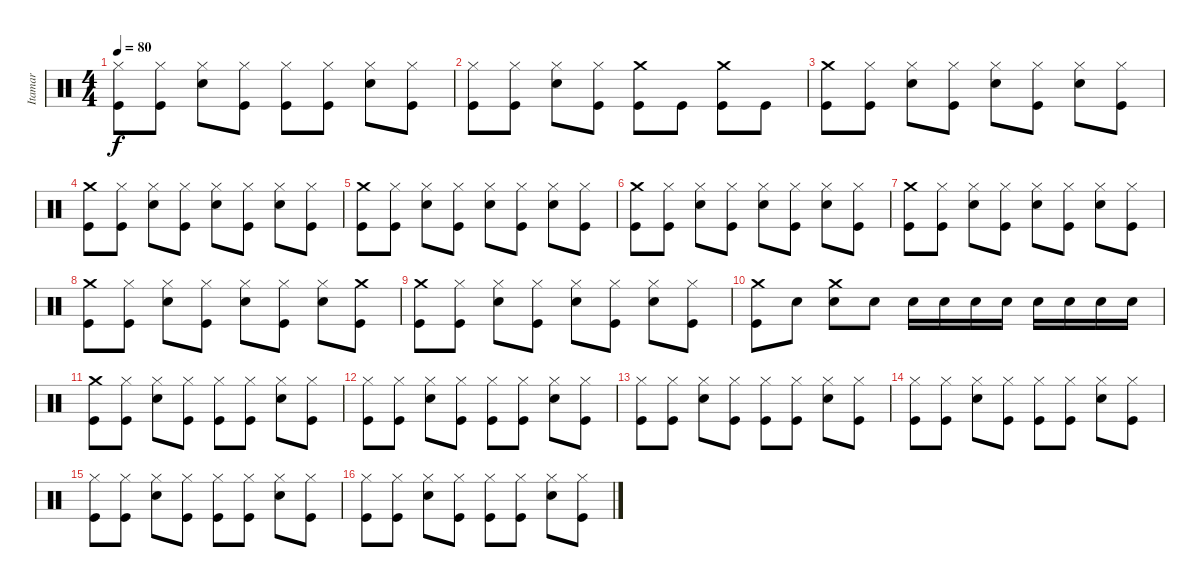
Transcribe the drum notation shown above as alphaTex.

\track ("Itamar" "Itamar") {instrument percussion}
\staff {score}
\articulation defaults
\ts (4 4)
\tempo 80
\clef neutral
\ks c
("Hi-Hat (closed)" "Kick (hit)").8{dy f} ("Hi-Hat (closed)" "Kick (hit)").8 ("Hi-Hat (closed)" "Electric Snare (hit)").8 ("Hi-Hat (closed)" "Kick (hit)").8 ("Hi-Hat (closed)" "Kick (hit)").8 ("Hi-Hat (closed)" "Kick (hit)").8 ("Hi-Hat (closed)" "Electric Snare (hit)").8 ("Hi-Hat (closed)" "Kick (hit)").8 |
("Hi-Hat (closed)" "Kick (hit)").8 ("Hi-Hat (closed)" "Kick (hit)").8 ("Hi-Hat (closed)" "Electric Snare (hit)").8 ("Hi-Hat (closed)" "Kick (hit)").8 ("Crash medium (hit)" "Kick (hit)").8 "Kick (hit)".8 ("Crash medium (hit)" "Kick (hit)").8 "Kick (hit)".8 |
("Crash medium (hit)" "Kick (hit)").8 ("Hi-Hat (closed)" "Kick (hit)").8 ("Hi-Hat (closed)" "Electric Snare (hit)").8 ("Hi-Hat (closed)" "Kick (hit)").8 ("Hi-Hat (closed)" "Electric Snare (hit)").8 ("Hi-Hat (closed)" "Kick (hit)").8 ("Hi-Hat (closed)" "Electric Snare (hit)").8 ("Hi-Hat (closed)" "Kick (hit)").8 |
("Crash medium (hit)" "Kick (hit)").8 ("Hi-Hat (closed)" "Kick (hit)").8 ("Hi-Hat (closed)" "Electric Snare (hit)").8 ("Hi-Hat (closed)" "Kick (hit)").8 ("Hi-Hat (closed)" "Electric Snare (hit)").8 ("Hi-Hat (closed)" "Kick (hit)").8 ("Hi-Hat (closed)" "Electric Snare (hit)").8 ("Hi-Hat (closed)" "Kick (hit)").8 |
("Crash medium (hit)" "Kick (hit)").8 ("Hi-Hat (closed)" "Kick (hit)").8 ("Hi-Hat (closed)" "Electric Snare (hit)").8 ("Hi-Hat (closed)" "Kick (hit)").8 ("Hi-Hat (closed)" "Electric Snare (hit)").8 ("Hi-Hat (closed)" "Kick (hit)").8 ("Hi-Hat (closed)" "Electric Snare (hit)").8 ("Hi-Hat (closed)" "Kick (hit)").8 |
("Crash medium (hit)" "Kick (hit)").8 ("Hi-Hat (closed)" "Kick (hit)").8 ("Hi-Hat (closed)" "Electric Snare (hit)").8 ("Hi-Hat (closed)" "Kick (hit)").8 ("Hi-Hat (closed)" "Electric Snare (hit)").8 ("Hi-Hat (closed)" "Kick (hit)").8 ("Hi-Hat (closed)" "Electric Snare (hit)").8 ("Hi-Hat (closed)" "Kick (hit)").8 |
("Crash medium (hit)" "Kick (hit)").8 ("Hi-Hat (closed)" "Kick (hit)").8 ("Hi-Hat (closed)" "Electric Snare (hit)").8 ("Hi-Hat (closed)" "Kick (hit)").8 ("Hi-Hat (closed)" "Electric Snare (hit)").8 ("Hi-Hat (closed)" "Kick (hit)").8 ("Hi-Hat (closed)" "Electric Snare (hit)").8 ("Hi-Hat (closed)" "Kick (hit)").8 |
("Crash medium (hit)" "Kick (hit)").8 ("Hi-Hat (closed)" "Kick (hit)").8 ("Hi-Hat (closed)" "Electric Snare (hit)").8 ("Hi-Hat (closed)" "Kick (hit)").8 ("Hi-Hat (closed)" "Electric Snare (hit)").8 ("Hi-Hat (closed)" "Kick (hit)").8 ("Hi-Hat (closed)" "Electric Snare (hit)").8 ("Crash medium (hit)" "Kick (hit)").8 |
("Crash medium (hit)" "Kick (hit)").8 ("Hi-Hat (closed)" "Kick (hit)").8 ("Hi-Hat (closed)" "Electric Snare (hit)").8 ("Hi-Hat (closed)" "Kick (hit)").8 ("Hi-Hat (closed)" "Electric Snare (hit)").8 ("Hi-Hat (closed)" "Kick (hit)").8 ("Hi-Hat (closed)" "Electric Snare (hit)").8 ("Hi-Hat (closed)" "Kick (hit)").8 |
("Crash medium (hit)" "Kick (hit)").8 "Snare (hit) 2".8 ("Crash medium (hit)" "Snare (hit) 2").8 "Snare (hit) 2".8 "Snare (hit) 2".16 "Snare (hit) 2".16 "Snare (hit) 2".16 "Snare (hit) 2".16 "Snare (hit) 2".16 "Snare (hit) 2".16 "Snare (hit) 2".16 "Snare (hit) 2".16 |
("Crash medium (hit)" "Kick (hit)").8 ("Hi-Hat (closed)" "Kick (hit)").8 ("Hi-Hat (closed)" "Electric Snare (hit)").8 ("Hi-Hat (closed)" "Kick (hit)").8 ("Hi-Hat (closed)" "Kick (hit)").8 ("Hi-Hat (closed)" "Kick (hit)").8 ("Hi-Hat (closed)" "Electric Snare (hit)").8 ("Hi-Hat (closed)" "Kick (hit)").8 |
("Hi-Hat (closed)" "Kick (hit)").8 ("Hi-Hat (closed)" "Kick (hit)").8 ("Hi-Hat (closed)" "Electric Snare (hit)").8 ("Hi-Hat (closed)" "Kick (hit)").8 ("Hi-Hat (closed)" "Kick (hit)").8 ("Hi-Hat (closed)" "Kick (hit)").8 ("Hi-Hat (closed)" "Electric Snare (hit)").8 ("Hi-Hat (closed)" "Kick (hit)").8 |
("Hi-Hat (closed)" "Kick (hit)").8 ("Hi-Hat (closed)" "Kick (hit)").8 ("Hi-Hat (closed)" "Electric Snare (hit)").8 ("Hi-Hat (closed)" "Kick (hit)").8 ("Hi-Hat (closed)" "Kick (hit)").8 ("Hi-Hat (closed)" "Kick (hit)").8 ("Hi-Hat (closed)" "Electric Snare (hit)").8 ("Hi-Hat (closed)" "Kick (hit)").8 |
("Hi-Hat (closed)" "Kick (hit)").8 ("Hi-Hat (closed)" "Kick (hit)").8 ("Hi-Hat (closed)" "Electric Snare (hit)").8 ("Hi-Hat (closed)" "Kick (hit)").8 ("Hi-Hat (closed)" "Kick (hit)").8 ("Hi-Hat (closed)" "Kick (hit)").8 ("Hi-Hat (closed)" "Electric Snare (hit)").8 ("Hi-Hat (closed)" "Kick (hit)").8 |
("Hi-Hat (closed)" "Kick (hit)").8 ("Hi-Hat (closed)" "Kick (hit)").8 ("Hi-Hat (closed)" "Electric Snare (hit)").8 ("Hi-Hat (closed)" "Kick (hit)").8 ("Hi-Hat (closed)" "Kick (hit)").8 ("Hi-Hat (closed)" "Kick (hit)").8 ("Hi-Hat (closed)" "Electric Snare (hit)").8 ("Hi-Hat (closed)" "Kick (hit)").8 |
("Hi-Hat (closed)" "Kick (hit)").8 ("Hi-Hat (closed)" "Kick (hit)").8 ("Hi-Hat (closed)" "Electric Snare (hit)").8 ("Hi-Hat (closed)" "Kick (hit)").8 ("Hi-Hat (closed)" "Kick (hit)").8 ("Hi-Hat (closed)" "Kick (hit)").8 ("Hi-Hat (closed)" "Electric Snare (hit)").8 ("Hi-Hat (closed)" "Kick (hit)").8
